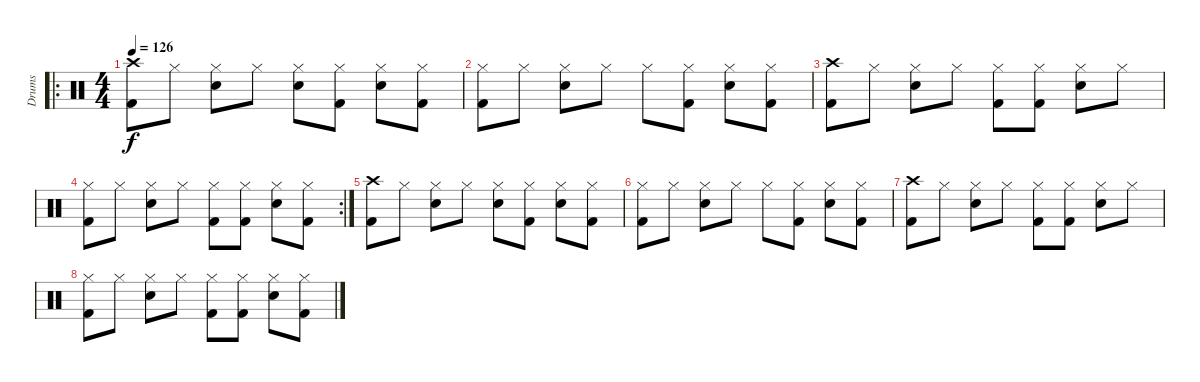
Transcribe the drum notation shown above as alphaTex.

\track ("Drums" "Drums") {instrument percussion}
\staff {score}
\articulation defaults
\ro
\ts (4 4)
\tempo 126
\clef neutral
\ks c
("Crash high (hit)" "Kick (hit) 2").8{dy f} "Hi-Hat (closed)".8 ("Hi-Hat (closed)" "Electric Snare (hit)").8 "Hi-Hat (closed)".8 ("Hi-Hat (closed)" "Electric Snare (hit)").8 ("Hi-Hat (closed)" "Kick (hit) 2").8 ("Hi-Hat (closed)" "Electric Snare (hit)").8 ("Hi-Hat (closed)" "Kick (hit) 2").8 |
("Hi-Hat (closed)" "Kick (hit) 2").8 "Hi-Hat (closed)".8 ("Hi-Hat (closed)" "Electric Snare (hit)").8 "Hi-Hat (closed)".8 "Hi-Hat (closed)".8 ("Hi-Hat (closed)" "Kick (hit) 2").8 ("Hi-Hat (closed)" "Electric Snare (hit)").8 ("Hi-Hat (closed)" "Kick (hit) 2").8 |
("Crash high (hit)" "Kick (hit) 2").8 "Hi-Hat (closed)".8 ("Hi-Hat (closed)" "Electric Snare (hit)").8 "Hi-Hat (closed)".8 ("Hi-Hat (closed)" "Kick (hit) 2").8 ("Hi-Hat (closed)" "Kick (hit) 2").8 ("Hi-Hat (closed)" "Electric Snare (hit)").8 "Hi-Hat (closed)".8 |
\rc 2
("Hi-Hat (closed)" "Kick (hit) 2").8 "Hi-Hat (closed)".8 ("Hi-Hat (closed)" "Electric Snare (hit)").8 "Hi-Hat (closed)".8 ("Hi-Hat (closed)" "Kick (hit) 2").8 ("Hi-Hat (closed)" "Kick (hit) 2").8 ("Hi-Hat (closed)" "Electric Snare (hit)").8 ("Hi-Hat (closed)" "Kick (hit) 2").8 |
("Crash high (hit)" "Kick (hit) 2").8{volume 8} "Hi-Hat (closed)".8 ("Hi-Hat (closed)" "Electric Snare (hit)").8 "Hi-Hat (closed)".8 ("Hi-Hat (closed)" "Electric Snare (hit)").8 ("Hi-Hat (closed)" "Kick (hit) 2").8 ("Hi-Hat (closed)" "Electric Snare (hit)").8 ("Hi-Hat (closed)" "Kick (hit) 2").8 |
("Hi-Hat (closed)" "Kick (hit) 2").8 "Hi-Hat (closed)".8 ("Hi-Hat (closed)" "Electric Snare (hit)").8 "Hi-Hat (closed)".8 "Hi-Hat (closed)".8 ("Hi-Hat (closed)" "Kick (hit) 2").8 ("Hi-Hat (closed)" "Electric Snare (hit)").8 ("Hi-Hat (closed)" "Kick (hit) 2").8 |
("Crash high (hit)" "Kick (hit) 2").8{volume 0} "Hi-Hat (closed)".8 ("Hi-Hat (closed)" "Electric Snare (hit)").8 "Hi-Hat (closed)".8 ("Hi-Hat (closed)" "Kick (hit) 2").8 ("Hi-Hat (closed)" "Kick (hit) 2").8 ("Hi-Hat (closed)" "Electric Snare (hit)").8 "Hi-Hat (closed)".8 |
("Hi-Hat (closed)" "Kick (hit) 2").8 "Hi-Hat (closed)".8 ("Hi-Hat (closed)" "Electric Snare (hit)").8 "Hi-Hat (closed)".8 ("Hi-Hat (closed)" "Kick (hit) 2").8 ("Hi-Hat (closed)" "Kick (hit) 2").8 ("Hi-Hat (closed)" "Electric Snare (hit)").8 ("Hi-Hat (closed)" "Kick (hit) 2").8
